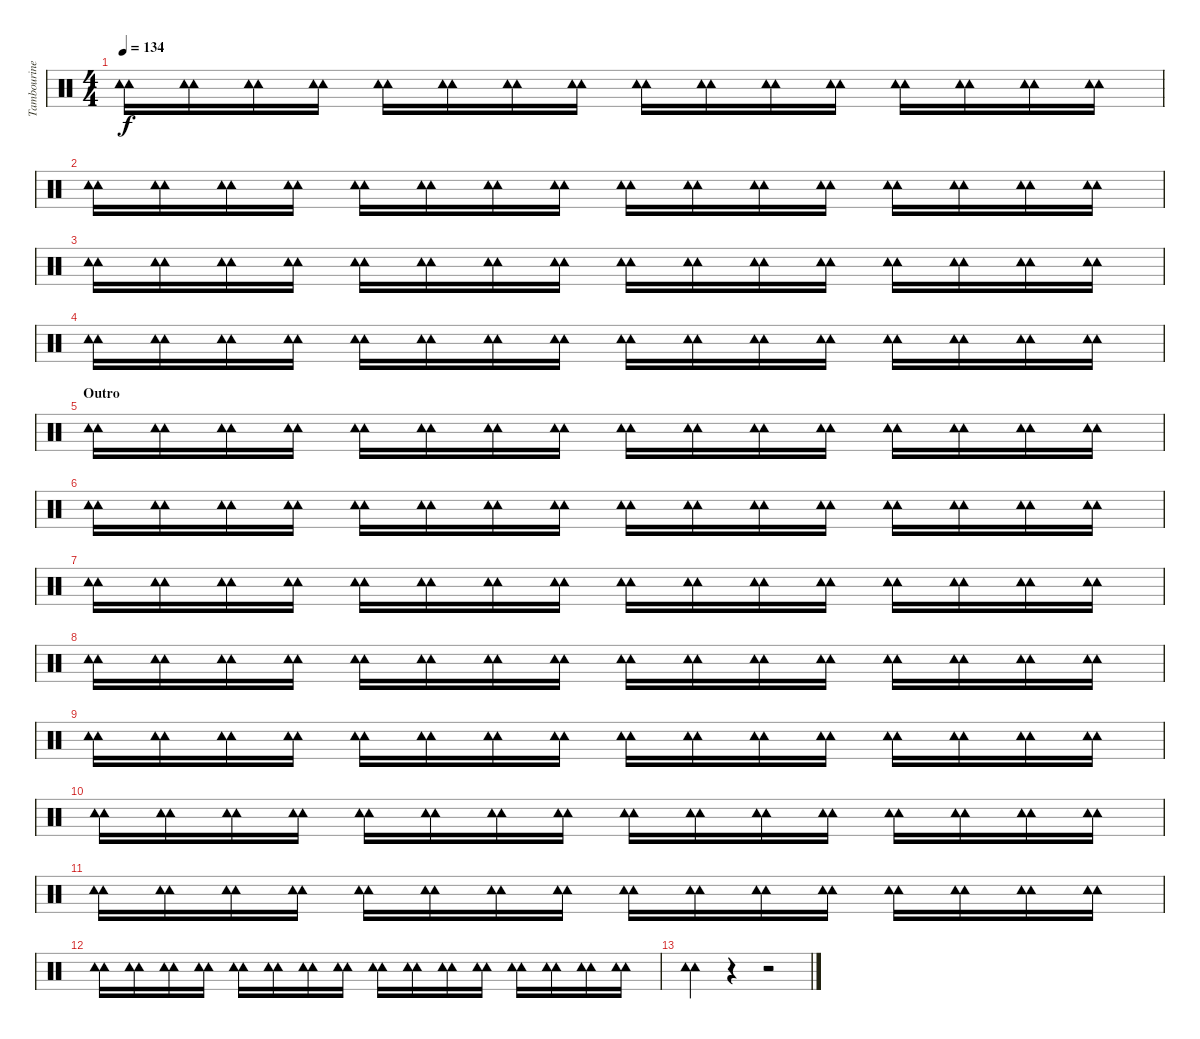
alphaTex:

\track ("Tambourine" "Tambourine") {instrument percussion}
\staff {score}
\articulation defaults
\ts (4 4)
\tempo 134
\clef neutral
\ks c
("Tambourine (hit)" "Tambourine (hit)").16{dy f} ("Tambourine (hit)" "Tambourine (hit)").16 ("Tambourine (hit)" "Tambourine (hit)").16 ("Tambourine (hit)" "Tambourine (hit)").16 ("Tambourine (hit)" "Tambourine (hit)").16 ("Tambourine (hit)" "Tambourine (hit)").16 ("Tambourine (hit)" "Tambourine (hit)").16 ("Tambourine (hit)" "Tambourine (hit)").16 ("Tambourine (hit)" "Tambourine (hit)").16 ("Tambourine (hit)" "Tambourine (hit)").16 ("Tambourine (hit)" "Tambourine (hit)").16 ("Tambourine (hit)" "Tambourine (hit)").16 ("Tambourine (hit)" "Tambourine (hit)").16 ("Tambourine (hit)" "Tambourine (hit)").16 ("Tambourine (hit)" "Tambourine (hit)").16 ("Tambourine (hit)" "Tambourine (hit)").16 |
("Tambourine (hit)" "Tambourine (hit)").16 ("Tambourine (hit)" "Tambourine (hit)").16 ("Tambourine (hit)" "Tambourine (hit)").16 ("Tambourine (hit)" "Tambourine (hit)").16 ("Tambourine (hit)" "Tambourine (hit)").16 ("Tambourine (hit)" "Tambourine (hit)").16 ("Tambourine (hit)" "Tambourine (hit)").16 ("Tambourine (hit)" "Tambourine (hit)").16 ("Tambourine (hit)" "Tambourine (hit)").16 ("Tambourine (hit)" "Tambourine (hit)").16 ("Tambourine (hit)" "Tambourine (hit)").16 ("Tambourine (hit)" "Tambourine (hit)").16 ("Tambourine (hit)" "Tambourine (hit)").16 ("Tambourine (hit)" "Tambourine (hit)").16 ("Tambourine (hit)" "Tambourine (hit)").16 ("Tambourine (hit)" "Tambourine (hit)").16 |
("Tambourine (hit)" "Tambourine (hit)").16 ("Tambourine (hit)" "Tambourine (hit)").16 ("Tambourine (hit)" "Tambourine (hit)").16 ("Tambourine (hit)" "Tambourine (hit)").16 ("Tambourine (hit)" "Tambourine (hit)").16 ("Tambourine (hit)" "Tambourine (hit)").16 ("Tambourine (hit)" "Tambourine (hit)").16 ("Tambourine (hit)" "Tambourine (hit)").16 ("Tambourine (hit)" "Tambourine (hit)").16 ("Tambourine (hit)" "Tambourine (hit)").16 ("Tambourine (hit)" "Tambourine (hit)").16 ("Tambourine (hit)" "Tambourine (hit)").16 ("Tambourine (hit)" "Tambourine (hit)").16 ("Tambourine (hit)" "Tambourine (hit)").16 ("Tambourine (hit)" "Tambourine (hit)").16 ("Tambourine (hit)" "Tambourine (hit)").16 |
("Tambourine (hit)" "Tambourine (hit)").16 ("Tambourine (hit)" "Tambourine (hit)").16 ("Tambourine (hit)" "Tambourine (hit)").16 ("Tambourine (hit)" "Tambourine (hit)").16 ("Tambourine (hit)" "Tambourine (hit)").16 ("Tambourine (hit)" "Tambourine (hit)").16 ("Tambourine (hit)" "Tambourine (hit)").16 ("Tambourine (hit)" "Tambourine (hit)").16 ("Tambourine (hit)" "Tambourine (hit)").16 ("Tambourine (hit)" "Tambourine (hit)").16 ("Tambourine (hit)" "Tambourine (hit)").16 ("Tambourine (hit)" "Tambourine (hit)").16 ("Tambourine (hit)" "Tambourine (hit)").16 ("Tambourine (hit)" "Tambourine (hit)").16 ("Tambourine (hit)" "Tambourine (hit)").16 ("Tambourine (hit)" "Tambourine (hit)").16 |
\section ("" "Outro")
("Tambourine (hit)" "Tambourine (hit)").16 ("Tambourine (hit)" "Tambourine (hit)").16 ("Tambourine (hit)" "Tambourine (hit)").16 ("Tambourine (hit)" "Tambourine (hit)").16 ("Tambourine (hit)" "Tambourine (hit)").16 ("Tambourine (hit)" "Tambourine (hit)").16 ("Tambourine (hit)" "Tambourine (hit)").16 ("Tambourine (hit)" "Tambourine (hit)").16 ("Tambourine (hit)" "Tambourine (hit)").16 ("Tambourine (hit)" "Tambourine (hit)").16 ("Tambourine (hit)" "Tambourine (hit)").16 ("Tambourine (hit)" "Tambourine (hit)").16 ("Tambourine (hit)" "Tambourine (hit)").16 ("Tambourine (hit)" "Tambourine (hit)").16 ("Tambourine (hit)" "Tambourine (hit)").16 ("Tambourine (hit)" "Tambourine (hit)").16 |
("Tambourine (hit)" "Tambourine (hit)").16 ("Tambourine (hit)" "Tambourine (hit)").16 ("Tambourine (hit)" "Tambourine (hit)").16 ("Tambourine (hit)" "Tambourine (hit)").16 ("Tambourine (hit)" "Tambourine (hit)").16 ("Tambourine (hit)" "Tambourine (hit)").16 ("Tambourine (hit)" "Tambourine (hit)").16 ("Tambourine (hit)" "Tambourine (hit)").16 ("Tambourine (hit)" "Tambourine (hit)").16 ("Tambourine (hit)" "Tambourine (hit)").16 ("Tambourine (hit)" "Tambourine (hit)").16 ("Tambourine (hit)" "Tambourine (hit)").16 ("Tambourine (hit)" "Tambourine (hit)").16 ("Tambourine (hit)" "Tambourine (hit)").16 ("Tambourine (hit)" "Tambourine (hit)").16 ("Tambourine (hit)" "Tambourine (hit)").16 |
("Tambourine (hit)" "Tambourine (hit)").16 ("Tambourine (hit)" "Tambourine (hit)").16 ("Tambourine (hit)" "Tambourine (hit)").16 ("Tambourine (hit)" "Tambourine (hit)").16 ("Tambourine (hit)" "Tambourine (hit)").16 ("Tambourine (hit)" "Tambourine (hit)").16 ("Tambourine (hit)" "Tambourine (hit)").16 ("Tambourine (hit)" "Tambourine (hit)").16 ("Tambourine (hit)" "Tambourine (hit)").16 ("Tambourine (hit)" "Tambourine (hit)").16 ("Tambourine (hit)" "Tambourine (hit)").16 ("Tambourine (hit)" "Tambourine (hit)").16 ("Tambourine (hit)" "Tambourine (hit)").16 ("Tambourine (hit)" "Tambourine (hit)").16 ("Tambourine (hit)" "Tambourine (hit)").16 ("Tambourine (hit)" "Tambourine (hit)").16 |
("Tambourine (hit)" "Tambourine (hit)").16 ("Tambourine (hit)" "Tambourine (hit)").16 ("Tambourine (hit)" "Tambourine (hit)").16 ("Tambourine (hit)" "Tambourine (hit)").16 ("Tambourine (hit)" "Tambourine (hit)").16 ("Tambourine (hit)" "Tambourine (hit)").16 ("Tambourine (hit)" "Tambourine (hit)").16 ("Tambourine (hit)" "Tambourine (hit)").16 ("Tambourine (hit)" "Tambourine (hit)").16 ("Tambourine (hit)" "Tambourine (hit)").16 ("Tambourine (hit)" "Tambourine (hit)").16 ("Tambourine (hit)" "Tambourine (hit)").16 ("Tambourine (hit)" "Tambourine (hit)").16 ("Tambourine (hit)" "Tambourine (hit)").16 ("Tambourine (hit)" "Tambourine (hit)").16 ("Tambourine (hit)" "Tambourine (hit)").16 |
("Tambourine (hit)" "Tambourine (hit)").16 ("Tambourine (hit)" "Tambourine (hit)").16 ("Tambourine (hit)" "Tambourine (hit)").16 ("Tambourine (hit)" "Tambourine (hit)").16 ("Tambourine (hit)" "Tambourine (hit)").16 ("Tambourine (hit)" "Tambourine (hit)").16 ("Tambourine (hit)" "Tambourine (hit)").16 ("Tambourine (hit)" "Tambourine (hit)").16 ("Tambourine (hit)" "Tambourine (hit)").16 ("Tambourine (hit)" "Tambourine (hit)").16 ("Tambourine (hit)" "Tambourine (hit)").16 ("Tambourine (hit)" "Tambourine (hit)").16 ("Tambourine (hit)" "Tambourine (hit)").16 ("Tambourine (hit)" "Tambourine (hit)").16 ("Tambourine (hit)" "Tambourine (hit)").16 ("Tambourine (hit)" "Tambourine (hit)").16 |
("Tambourine (hit)" "Tambourine (hit)").16 ("Tambourine (hit)" "Tambourine (hit)").16 ("Tambourine (hit)" "Tambourine (hit)").16 ("Tambourine (hit)" "Tambourine (hit)").16 ("Tambourine (hit)" "Tambourine (hit)").16 ("Tambourine (hit)" "Tambourine (hit)").16 ("Tambourine (hit)" "Tambourine (hit)").16 ("Tambourine (hit)" "Tambourine (hit)").16 ("Tambourine (hit)" "Tambourine (hit)").16 ("Tambourine (hit)" "Tambourine (hit)").16 ("Tambourine (hit)" "Tambourine (hit)").16 ("Tambourine (hit)" "Tambourine (hit)").16 ("Tambourine (hit)" "Tambourine (hit)").16 ("Tambourine (hit)" "Tambourine (hit)").16 ("Tambourine (hit)" "Tambourine (hit)").16 ("Tambourine (hit)" "Tambourine (hit)").16 |
("Tambourine (hit)" "Tambourine (hit)").16 ("Tambourine (hit)" "Tambourine (hit)").16 ("Tambourine (hit)" "Tambourine (hit)").16 ("Tambourine (hit)" "Tambourine (hit)").16 ("Tambourine (hit)" "Tambourine (hit)").16 ("Tambourine (hit)" "Tambourine (hit)").16 ("Tambourine (hit)" "Tambourine (hit)").16 ("Tambourine (hit)" "Tambourine (hit)").16 ("Tambourine (hit)" "Tambourine (hit)").16 ("Tambourine (hit)" "Tambourine (hit)").16 ("Tambourine (hit)" "Tambourine (hit)").16 ("Tambourine (hit)" "Tambourine (hit)").16 ("Tambourine (hit)" "Tambourine (hit)").16 ("Tambourine (hit)" "Tambourine (hit)").16 ("Tambourine (hit)" "Tambourine (hit)").16 ("Tambourine (hit)" "Tambourine (hit)").16 |
("Tambourine (hit)" "Tambourine (hit)").16 ("Tambourine (hit)" "Tambourine (hit)").16 ("Tambourine (hit)" "Tambourine (hit)").16 ("Tambourine (hit)" "Tambourine (hit)").16 ("Tambourine (hit)" "Tambourine (hit)").16 ("Tambourine (hit)" "Tambourine (hit)").16 ("Tambourine (hit)" "Tambourine (hit)").16 ("Tambourine (hit)" "Tambourine (hit)").16 ("Tambourine (hit)" "Tambourine (hit)").16 ("Tambourine (hit)" "Tambourine (hit)").16 ("Tambourine (hit)" "Tambourine (hit)").16 ("Tambourine (hit)" "Tambourine (hit)").16 ("Tambourine (hit)" "Tambourine (hit)").16 ("Tambourine (hit)" "Tambourine (hit)").16 ("Tambourine (hit)" "Tambourine (hit)").16 ("Tambourine (hit)" "Tambourine (hit)").16 |
("Tambourine (hit)" "Tambourine (hit)").4 r.4 r.2
